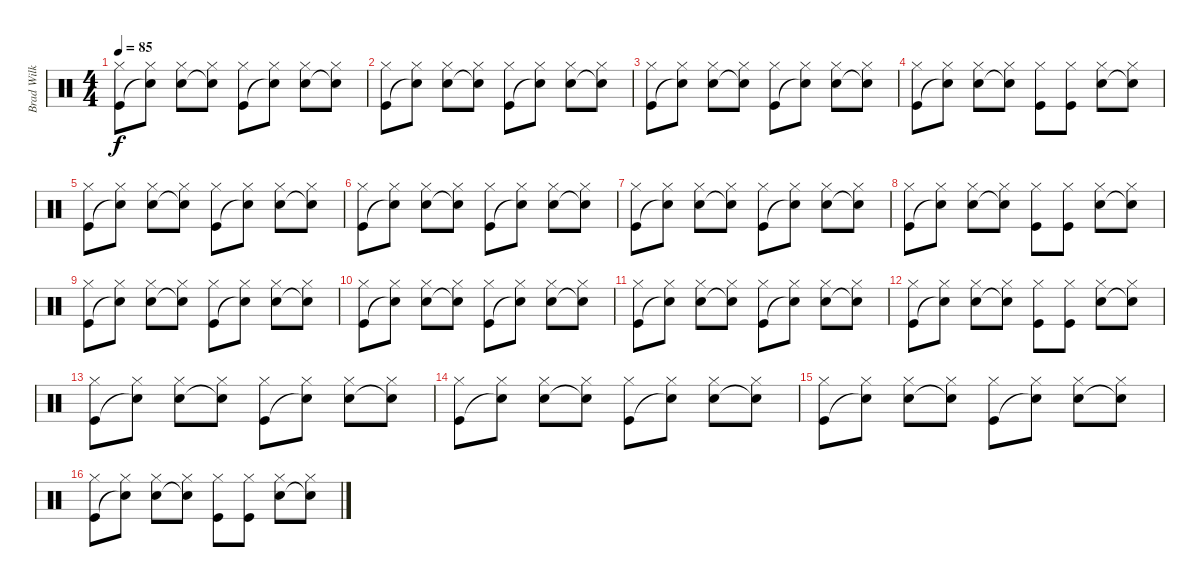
\track ("Brad Wilk" "Brad Wilk") {instrument percussion}
\staff {score}
\articulation defaults
\ts (4 4)
\tempo 85
\clef neutral
\ks c
("Hi-Hat (closed)" "Kick (hit)").8{dy f} ("Hi-Hat (closed)" "Snare (hit)"{t}).8 ("Hi-Hat (closed)" "Snare (hit) 2").8 ("Hi-Hat (closed)" "Snare (hit)"{t}).8 ("Hi-Hat (closed)" "Kick (hit)").8 ("Hi-Hat (closed)" "Snare (hit)"{t}).8 ("Hi-Hat (closed)" "Snare (hit) 2").8 ("Hi-Hat (closed)" "Snare (hit)"{t}).8 |
("Hi-Hat (closed)" "Kick (hit)").8 ("Hi-Hat (closed)" "Snare (hit)"{t}).8 ("Hi-Hat (closed)" "Snare (hit) 2").8 ("Hi-Hat (closed)" "Snare (hit)"{t}).8 ("Hi-Hat (closed)" "Kick (hit)").8 ("Hi-Hat (closed)" "Snare (hit)"{t}).8 ("Hi-Hat (closed)" "Snare (hit) 2").8 ("Hi-Hat (closed)" "Snare (hit)"{t}).8 |
("Hi-Hat (closed)" "Kick (hit)").8 ("Hi-Hat (closed)" "Snare (hit)"{t}).8 ("Hi-Hat (closed)" "Snare (hit) 2").8 ("Hi-Hat (closed)" "Snare (hit)"{t}).8 ("Hi-Hat (closed)" "Kick (hit)").8 ("Hi-Hat (closed)" "Snare (hit)"{t}).8 ("Hi-Hat (closed)" "Snare (hit) 2").8 ("Hi-Hat (closed)" "Snare (hit)"{t}).8 |
("Hi-Hat (closed)" "Kick (hit)").8 ("Hi-Hat (closed)" "Snare (hit)"{t}).8 ("Hi-Hat (closed)" "Snare (hit) 2").8 ("Hi-Hat (closed)" "Snare (hit)"{t}).8 ("Hi-Hat (closed)" "Kick (hit)").8 ("Hi-Hat (closed)" "Kick (hit)").8 ("Hi-Hat (closed)" "Snare (hit) 2").8 ("Hi-Hat (closed)" "Snare (hit)"{t}).8 |
("Hi-Hat (closed)" "Kick (hit)").8 ("Hi-Hat (closed)" "Snare (hit)"{t}).8 ("Hi-Hat (closed)" "Snare (hit) 2").8 ("Hi-Hat (closed)" "Snare (hit)"{t}).8 ("Hi-Hat (closed)" "Kick (hit)").8 ("Hi-Hat (closed)" "Snare (hit)"{t}).8 ("Hi-Hat (closed)" "Snare (hit) 2").8 ("Hi-Hat (closed)" "Snare (hit)"{t}).8 |
("Hi-Hat (closed)" "Kick (hit)").8 ("Hi-Hat (closed)" "Snare (hit)"{t}).8 ("Hi-Hat (closed)" "Snare (hit) 2").8 ("Hi-Hat (closed)" "Snare (hit)"{t}).8 ("Hi-Hat (closed)" "Kick (hit)").8 ("Hi-Hat (closed)" "Snare (hit)"{t}).8 ("Hi-Hat (closed)" "Snare (hit) 2").8 ("Hi-Hat (closed)" "Snare (hit)"{t}).8 |
("Hi-Hat (closed)" "Kick (hit)").8 ("Hi-Hat (closed)" "Snare (hit)"{t}).8 ("Hi-Hat (closed)" "Snare (hit) 2").8 ("Hi-Hat (closed)" "Snare (hit)"{t}).8 ("Hi-Hat (closed)" "Kick (hit)").8 ("Hi-Hat (closed)" "Snare (hit)"{t}).8 ("Hi-Hat (closed)" "Snare (hit) 2").8 ("Hi-Hat (closed)" "Snare (hit)"{t}).8 |
("Hi-Hat (closed)" "Kick (hit)").8 ("Hi-Hat (closed)" "Snare (hit)"{t}).8 ("Hi-Hat (closed)" "Snare (hit) 2").8 ("Hi-Hat (closed)" "Snare (hit)"{t}).8 ("Hi-Hat (closed)" "Kick (hit)").8 ("Hi-Hat (closed)" "Kick (hit)").8 ("Hi-Hat (closed)" "Snare (hit) 2").8 ("Hi-Hat (closed)" "Snare (hit)"{t}).8 |
("Hi-Hat (closed)" "Kick (hit)").8 ("Hi-Hat (closed)" "Snare (hit)"{t}).8 ("Hi-Hat (closed)" "Snare (hit) 2").8 ("Hi-Hat (closed)" "Snare (hit)"{t}).8 ("Hi-Hat (closed)" "Kick (hit)").8 ("Hi-Hat (closed)" "Snare (hit)"{t}).8 ("Hi-Hat (closed)" "Snare (hit) 2").8 ("Hi-Hat (closed)" "Snare (hit)"{t}).8 |
("Hi-Hat (closed)" "Kick (hit)").8 ("Hi-Hat (closed)" "Snare (hit)"{t}).8 ("Hi-Hat (closed)" "Snare (hit) 2").8 ("Hi-Hat (closed)" "Snare (hit)"{t}).8 ("Hi-Hat (closed)" "Kick (hit)").8 ("Hi-Hat (closed)" "Snare (hit)"{t}).8 ("Hi-Hat (closed)" "Snare (hit) 2").8 ("Hi-Hat (closed)" "Snare (hit)"{t}).8 |
("Hi-Hat (closed)" "Kick (hit)").8 ("Hi-Hat (closed)" "Snare (hit)"{t}).8 ("Hi-Hat (closed)" "Snare (hit) 2").8 ("Hi-Hat (closed)" "Snare (hit)"{t}).8 ("Hi-Hat (closed)" "Kick (hit)").8 ("Hi-Hat (closed)" "Snare (hit)"{t}).8 ("Hi-Hat (closed)" "Snare (hit) 2").8 ("Hi-Hat (closed)" "Snare (hit)"{t}).8 |
("Hi-Hat (closed)" "Kick (hit)").8 ("Hi-Hat (closed)" "Snare (hit)"{t}).8 ("Hi-Hat (closed)" "Snare (hit) 2").8 ("Hi-Hat (closed)" "Snare (hit)"{t}).8 ("Hi-Hat (closed)" "Kick (hit)").8 ("Hi-Hat (closed)" "Kick (hit)").8 ("Hi-Hat (closed)" "Snare (hit) 2").8 ("Hi-Hat (closed)" "Snare (hit)"{t}).8 |
("Hi-Hat (closed)" "Kick (hit)").8 ("Hi-Hat (closed)" "Snare (hit)"{t}).8 ("Hi-Hat (closed)" "Snare (hit) 2").8 ("Hi-Hat (closed)" "Snare (hit)"{t}).8 ("Hi-Hat (closed)" "Kick (hit)").8 ("Hi-Hat (closed)" "Snare (hit)"{t}).8 ("Hi-Hat (closed)" "Snare (hit) 2").8 ("Hi-Hat (closed)" "Snare (hit)"{t}).8 |
("Hi-Hat (closed)" "Kick (hit)").8 ("Hi-Hat (closed)" "Snare (hit)"{t}).8 ("Hi-Hat (closed)" "Snare (hit) 2").8 ("Hi-Hat (closed)" "Snare (hit)"{t}).8 ("Hi-Hat (closed)" "Kick (hit)").8 ("Hi-Hat (closed)" "Snare (hit)"{t}).8 ("Hi-Hat (closed)" "Snare (hit) 2").8 ("Hi-Hat (closed)" "Snare (hit)"{t}).8 |
("Hi-Hat (closed)" "Kick (hit)").8{volume 14} ("Hi-Hat (closed)" "Snare (hit)"{t}).8 ("Hi-Hat (closed)" "Snare (hit) 2").8 ("Hi-Hat (closed)" "Snare (hit)"{t}).8 ("Hi-Hat (closed)" "Kick (hit)").8 ("Hi-Hat (closed)" "Snare (hit)"{t}).8 ("Hi-Hat (closed)" "Snare (hit) 2").8 ("Hi-Hat (closed)" "Snare (hit)"{t}).8 |
("Hi-Hat (closed)" "Kick (hit)").8 ("Hi-Hat (closed)" "Snare (hit)"{t}).8 ("Hi-Hat (closed)" "Snare (hit) 2").8 ("Hi-Hat (closed)" "Snare (hit)"{t}).8 ("Hi-Hat (closed)" "Kick (hit)").8 ("Hi-Hat (closed)" "Kick (hit)").8 ("Hi-Hat (closed)" "Snare (hit) 2").8 ("Hi-Hat (closed)" "Snare (hit)"{t}).8
